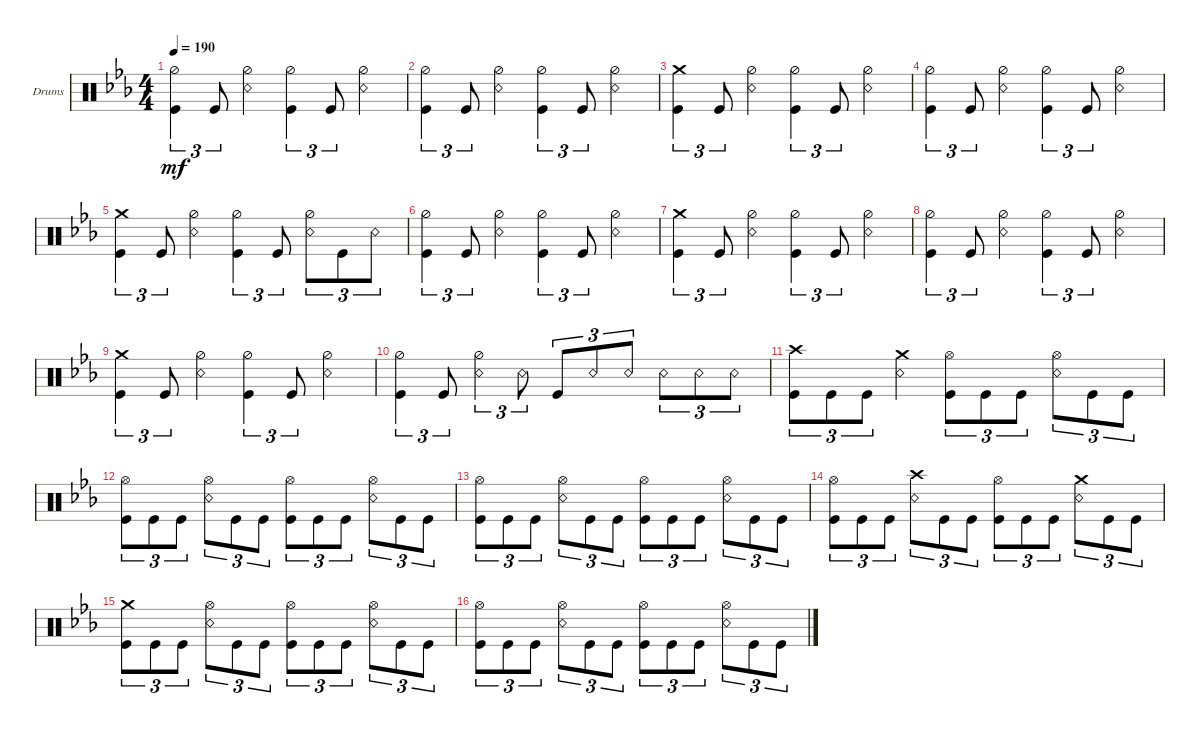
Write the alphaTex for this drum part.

\defaultSystemsLayout 4
\bracketExtendMode groupsimilarinstruments
\firstSystemTrackNameOrientation horizontal
\otherSystemsTrackNameOrientation horizontal
\track ("Drumkit" "Drums") {instrument percussion}
\staff {score}
\articulation defaults
\ts (4 4)
\tempo 190
\clef neutral
\ks cminor
("Kick (hit)" "Hi-Hat (half)").4{tu (3 2) dy mf} "Kick (hit)".8{tu (3 2)} ("Hi-Hat (half)" "Snare (rim shot)").4 ("Kick (hit)" "Hi-Hat (half)").4{tu (3 2)} "Kick (hit)".8{tu (3 2)} ("Hi-Hat (half)" "Snare (rim shot)").4 |
("Kick (hit)" "Hi-Hat (half)").4{tu (3 2)} "Kick (hit)".8{tu (3 2)} ("Hi-Hat (half)" "Snare (rim shot)").4 ("Kick (hit)" "Hi-Hat (half)").4{tu (3 2)} "Kick (hit)".8{tu (3 2)} ("Hi-Hat (half)" "Snare (rim shot)").4 |
("Kick (hit)" "Crash medium (hit)").4{tu (3 2)} "Kick (hit)".8{tu (3 2)} ("Hi-Hat (half)" "Snare (rim shot)").4 ("Kick (hit)" "Hi-Hat (half)").4{tu (3 2)} "Kick (hit)".8{tu (3 2)} ("Hi-Hat (half)" "Snare (rim shot)").4 |
("Kick (hit)" "Hi-Hat (half)").4{tu (3 2)} "Kick (hit)".8{tu (3 2)} ("Hi-Hat (half)" "Snare (rim shot)").4 ("Kick (hit)" "Hi-Hat (half)").4{tu (3 2)} "Kick (hit)".8{tu (3 2)} ("Hi-Hat (half)" "Snare (rim shot)").4 |
("Kick (hit)" "Crash medium (hit)").4{tu (3 2)} "Kick (hit)".8{tu (3 2)} ("Hi-Hat (half)" "Snare (rim shot)").4 ("Kick (hit)" "Hi-Hat (half)").4{tu (3 2)} "Kick (hit)".8{tu (3 2)} ("Hi-Hat (half)" "Snare (rim shot)").8{tu (3 2)} "Kick (hit)".8{tu (3 2)} "Snare (rim shot)".8{tu (3 2)} |
("Kick (hit)" "Hi-Hat (half)").4{tu (3 2)} "Kick (hit)".8{tu (3 2)} ("Hi-Hat (half)" "Snare (rim shot)").4 ("Kick (hit)" "Hi-Hat (half)").4{tu (3 2)} "Kick (hit)".8{tu (3 2)} ("Hi-Hat (half)" "Snare (rim shot)").4 |
("Kick (hit)" "Crash medium (hit)").4{tu (3 2)} "Kick (hit)".8{tu (3 2)} ("Hi-Hat (half)" "Snare (rim shot)").4 ("Kick (hit)" "Hi-Hat (half)").4{tu (3 2)} "Kick (hit)".8{tu (3 2)} ("Hi-Hat (half)" "Snare (rim shot)").4 |
("Kick (hit)" "Hi-Hat (half)").4{tu (3 2)} "Kick (hit)".8{tu (3 2)} ("Hi-Hat (half)" "Snare (rim shot)").4 ("Kick (hit)" "Hi-Hat (half)").4{tu (3 2)} "Kick (hit)".8{tu (3 2)} ("Hi-Hat (half)" "Snare (rim shot)").4 |
("Kick (hit)" "Crash medium (hit)").4{tu (3 2)} "Kick (hit)".8{tu (3 2)} ("Hi-Hat (half)" "Snare (rim shot)").4 ("Kick (hit)" "Hi-Hat (half)").4{tu (3 2)} "Kick (hit)".8{tu (3 2)} ("Hi-Hat (half)" "Snare (rim shot)").4 |
("Kick (hit)" "Hi-Hat (half)").4{tu (3 2)} "Kick (hit)".8{tu (3 2)} ("Hi-Hat (half)" "Snare (rim shot)").4{tu (3 2)} "Snare (rim shot)".8{tu (3 2)} "Kick (hit)".8{tu (3 2)} "Snare (rim shot)".8{tu (3 2)} "Snare (rim shot)".8{tu (3 2)} "Snare (rim shot)".8{tu (3 2)} "Snare (rim shot)".8{tu (3 2)} "Snare (rim shot)".8{tu (3 2)} |
("Kick (hit)" "Crash high (hit)").8{tu (3 2)} "Kick (hit)".8{tu (3 2)} "Kick (hit)".8{tu (3 2)} ("Snare (rim shot)" "Crash medium (hit)").4 ("Kick (hit)" "Hi-Hat (open)").8{tu (3 2)} "Kick (hit)".8{tu (3 2)} "Kick (hit)".8{tu (3 2)} ("Snare (rim shot)" "Hi-Hat (open)").8{tu (3 2)} "Kick (hit)".8{tu (3 2)} "Kick (hit)".8{tu (3 2)} |
("Kick (hit)" "Hi-Hat (open)").8{tu (3 2)} "Kick (hit)".8{tu (3 2)} "Kick (hit)".8{tu (3 2)} ("Snare (rim shot)" "Hi-Hat (open)").8{tu (3 2)} "Kick (hit)".8{tu (3 2)} "Kick (hit)".8{tu (3 2)} ("Kick (hit)" "Hi-Hat (open)").8{tu (3 2)} "Kick (hit)".8{tu (3 2)} "Kick (hit)".8{tu (3 2)} ("Snare (rim shot)" "Hi-Hat (open)").8{tu (3 2)} "Kick (hit)".8{tu (3 2)} "Kick (hit)".8{tu (3 2)} |
("Kick (hit)" "Hi-Hat (open)").8{tu (3 2)} "Kick (hit)".8{tu (3 2)} "Kick (hit)".8{tu (3 2)} ("Snare (rim shot)" "Hi-Hat (open)").8{tu (3 2)} "Kick (hit)".8{tu (3 2)} "Kick (hit)".8{tu (3 2)} ("Kick (hit)" "Hi-Hat (open)").8{tu (3 2)} "Kick (hit)".8{tu (3 2)} "Kick (hit)".8{tu (3 2)} ("Snare (rim shot)" "Hi-Hat (open)").8{tu (3 2)} "Kick (hit)".8{tu (3 2)} "Kick (hit)".8{tu (3 2)} |
("Kick (hit)" "Hi-Hat (open)").8{tu (3 2)} "Kick (hit)".8{tu (3 2)} "Kick (hit)".8{tu (3 2)} ("Snare (rim shot)" "Crash high (hit)").8{tu (3 2)} "Kick (hit)".8{tu (3 2)} "Kick (hit)".8{tu (3 2)} ("Kick (hit)" "Hi-Hat (open)").8{tu (3 2)} "Kick (hit)".8{tu (3 2)} "Kick (hit)".8{tu (3 2)} ("Snare (rim shot)" "Crash medium (hit)").8{tu (3 2)} "Kick (hit)".8{tu (3 2)} "Kick (hit)".8{tu (3 2)} |
("Kick (hit)" "Crash medium (hit)").8{tu (3 2)} "Kick (hit)".8{tu (3 2)} "Kick (hit)".8{tu (3 2)} ("Snare (rim shot)" "Hi-Hat (open)").8{tu (3 2)} "Kick (hit)".8{tu (3 2)} "Kick (hit)".8{tu (3 2)} ("Kick (hit)" "Hi-Hat (open)").8{tu (3 2)} "Kick (hit)".8{tu (3 2)} "Kick (hit)".8{tu (3 2)} ("Snare (rim shot)" "Hi-Hat (open)").8{tu (3 2)} "Kick (hit)".8{tu (3 2)} "Kick (hit)".8{tu (3 2)} |
("Kick (hit)" "Hi-Hat (open)").8{tu (3 2)} "Kick (hit)".8{tu (3 2)} "Kick (hit)".8{tu (3 2)} ("Snare (rim shot)" "Hi-Hat (open)").8{tu (3 2)} "Kick (hit)".8{tu (3 2)} "Kick (hit)".8{tu (3 2)} ("Kick (hit)" "Hi-Hat (open)").8{tu (3 2)} "Kick (hit)".8{tu (3 2)} "Kick (hit)".8{tu (3 2)} ("Snare (rim shot)" "Hi-Hat (open)").8{tu (3 2)} "Kick (hit)".8{tu (3 2)} "Kick (hit)".8{tu (3 2)}
